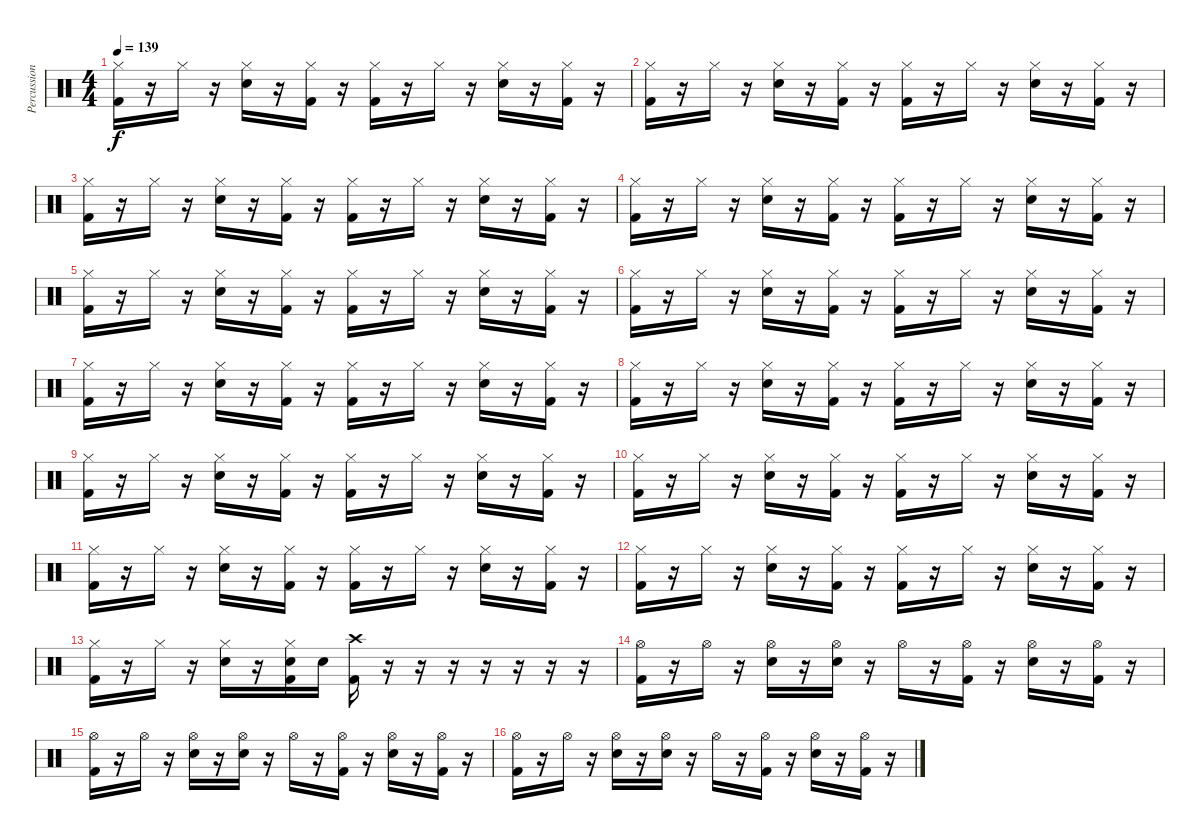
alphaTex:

\track ("Percussion" "Percussion") {instrument percussion}
\staff {score}
\articulation defaults
\ts (4 4)
\tempo 139
\clef neutral
\ks c
("Hi-Hat (closed)" "Kick (hit) 2").16{dy f} r.16 "Hi-Hat (closed)".16 r.16 ("Hi-Hat (closed)" "Snare (hit) 2").16 r.16 ("Hi-Hat (closed)" "Kick (hit) 2").16 r.16 ("Hi-Hat (closed)" "Kick (hit) 2").16 r.16 "Hi-Hat (closed)".16 r.16 ("Hi-Hat (closed)" "Snare (hit) 2").16 r.16 ("Hi-Hat (closed)" "Kick (hit) 2").16 r.16 |
("Hi-Hat (closed)" "Kick (hit) 2").16 r.16 "Hi-Hat (closed)".16 r.16 ("Hi-Hat (closed)" "Snare (hit) 2").16 r.16 ("Hi-Hat (closed)" "Kick (hit) 2").16 r.16 ("Hi-Hat (closed)" "Kick (hit) 2").16 r.16 "Hi-Hat (closed)".16 r.16 ("Hi-Hat (closed)" "Snare (hit) 2").16 r.16 ("Hi-Hat (closed)" "Kick (hit) 2").16 r.16 |
("Hi-Hat (closed)" "Kick (hit) 2").16 r.16 "Hi-Hat (closed)".16 r.16 ("Hi-Hat (closed)" "Snare (hit) 2").16 r.16 ("Hi-Hat (closed)" "Kick (hit) 2").16 r.16 ("Hi-Hat (closed)" "Kick (hit) 2").16 r.16 "Hi-Hat (closed)".16 r.16 ("Hi-Hat (closed)" "Snare (hit) 2").16 r.16 ("Hi-Hat (closed)" "Kick (hit) 2").16 r.16 |
("Hi-Hat (closed)" "Kick (hit) 2").16 r.16 "Hi-Hat (closed)".16 r.16 ("Hi-Hat (closed)" "Snare (hit) 2").16 r.16 ("Hi-Hat (closed)" "Kick (hit) 2").16 r.16 ("Hi-Hat (closed)" "Kick (hit) 2").16 r.16 "Hi-Hat (closed)".16 r.16 ("Hi-Hat (closed)" "Snare (hit) 2").16 r.16 ("Hi-Hat (closed)" "Kick (hit) 2").16 r.16 |
("Hi-Hat (closed)" "Kick (hit) 2").16 r.16 "Hi-Hat (closed)".16 r.16 ("Hi-Hat (closed)" "Snare (hit) 2").16 r.16 ("Hi-Hat (closed)" "Kick (hit) 2").16 r.16 ("Hi-Hat (closed)" "Kick (hit) 2").16 r.16 "Hi-Hat (closed)".16 r.16 ("Hi-Hat (closed)" "Snare (hit) 2").16 r.16 ("Hi-Hat (closed)" "Kick (hit) 2").16 r.16 |
("Hi-Hat (closed)" "Kick (hit) 2").16 r.16 "Hi-Hat (closed)".16 r.16 ("Hi-Hat (closed)" "Snare (hit) 2").16 r.16 ("Hi-Hat (closed)" "Kick (hit) 2").16 r.16 ("Hi-Hat (closed)" "Kick (hit) 2").16 r.16 "Hi-Hat (closed)".16 r.16 ("Hi-Hat (closed)" "Snare (hit) 2").16 r.16 ("Hi-Hat (closed)" "Kick (hit) 2").16 r.16 |
("Hi-Hat (closed)" "Kick (hit) 2").16 r.16 "Hi-Hat (closed)".16 r.16 ("Hi-Hat (closed)" "Snare (hit) 2").16 r.16 ("Hi-Hat (closed)" "Kick (hit) 2").16 r.16 ("Hi-Hat (closed)" "Kick (hit) 2").16 r.16 "Hi-Hat (closed)".16 r.16 ("Hi-Hat (closed)" "Snare (hit) 2").16 r.16 ("Hi-Hat (closed)" "Kick (hit) 2").16 r.16 |
("Hi-Hat (closed)" "Kick (hit) 2").16 r.16 "Hi-Hat (closed)".16 r.16 ("Hi-Hat (closed)" "Snare (hit) 2").16 r.16 ("Hi-Hat (closed)" "Kick (hit) 2").16 r.16 ("Hi-Hat (closed)" "Kick (hit) 2").16 r.16 "Hi-Hat (closed)".16 r.16 ("Hi-Hat (closed)" "Snare (hit) 2").16 r.16 ("Hi-Hat (closed)" "Kick (hit) 2").16 r.16 |
("Hi-Hat (closed)" "Kick (hit) 2").16 r.16 "Hi-Hat (closed)".16 r.16 ("Hi-Hat (closed)" "Snare (hit) 2").16 r.16 ("Hi-Hat (closed)" "Kick (hit) 2").16 r.16 ("Hi-Hat (closed)" "Kick (hit) 2").16 r.16 "Hi-Hat (closed)".16 r.16 ("Hi-Hat (closed)" "Snare (hit) 2").16 r.16 ("Hi-Hat (closed)" "Kick (hit) 2").16 r.16 |
("Hi-Hat (closed)" "Kick (hit) 2").16 r.16 "Hi-Hat (closed)".16 r.16 ("Hi-Hat (closed)" "Snare (hit) 2").16 r.16 ("Hi-Hat (closed)" "Kick (hit) 2").16 r.16 ("Hi-Hat (closed)" "Kick (hit) 2").16 r.16 "Hi-Hat (closed)".16 r.16 ("Hi-Hat (closed)" "Snare (hit) 2").16 r.16 ("Hi-Hat (closed)" "Kick (hit) 2").16 r.16 |
("Hi-Hat (closed)" "Kick (hit) 2").16 r.16 "Hi-Hat (closed)".16 r.16 ("Hi-Hat (closed)" "Snare (hit) 2").16 r.16 ("Hi-Hat (closed)" "Kick (hit) 2").16 r.16 ("Hi-Hat (closed)" "Kick (hit) 2").16 r.16 "Hi-Hat (closed)".16 r.16 ("Hi-Hat (closed)" "Snare (hit) 2").16 r.16 ("Hi-Hat (closed)" "Kick (hit) 2").16 r.16 |
("Hi-Hat (closed)" "Kick (hit) 2").16 r.16 "Hi-Hat (closed)".16 r.16 ("Hi-Hat (closed)" "Snare (hit) 2").16 r.16 ("Hi-Hat (closed)" "Kick (hit) 2").16 r.16 ("Hi-Hat (closed)" "Kick (hit) 2").16 r.16 "Hi-Hat (closed)".16 r.16 ("Hi-Hat (closed)" "Snare (hit) 2").16 r.16 ("Hi-Hat (closed)" "Kick (hit) 2").16 r.16 |
("Hi-Hat (closed)" "Kick (hit) 2").16 r.16 "Hi-Hat (closed)".16 r.16 ("Hi-Hat (closed)" "Snare (hit) 2").16 r.16 ("Hi-Hat (closed)" "Snare (hit) 2" "Kick (hit) 2").16 "Snare (hit) 2".16 ("Crash high (hit)" "Kick (hit) 2").16 r.16 r.16 r.16 r.16 r.16 r.16 r.16 |
("Hi-Hat (open)" "Kick (hit) 2").16 r.16 "Hi-Hat (open)".16 r.16 ("Hi-Hat (open)" "Snare (hit) 2").16 r.16 ("Hi-Hat (open)" "Snare (hit) 2").16 r.16 "Hi-Hat (open)".16 r.16 ("Hi-Hat (open)" "Kick (hit) 2").16 r.16 ("Hi-Hat (open)" "Snare (hit) 2").16 r.16 ("Hi-Hat (open)" "Kick (hit) 2").16 r.16 |
("Hi-Hat (open)" "Kick (hit) 2").16 r.16 "Hi-Hat (open)".16 r.16 ("Hi-Hat (open)" "Snare (hit) 2").16 r.16 ("Hi-Hat (open)" "Snare (hit) 2").16 r.16 "Hi-Hat (open)".16 r.16 ("Hi-Hat (open)" "Kick (hit) 2").16 r.16 ("Hi-Hat (open)" "Snare (hit) 2").16 r.16 ("Hi-Hat (open)" "Kick (hit) 2").16 r.16 |
("Hi-Hat (open)" "Kick (hit) 2").16 r.16 "Hi-Hat (open)".16 r.16 ("Hi-Hat (open)" "Snare (hit) 2").16 r.16 ("Hi-Hat (open)" "Snare (hit) 2").16 r.16 "Hi-Hat (open)".16 r.16 ("Hi-Hat (open)" "Kick (hit) 2").16 r.16 ("Hi-Hat (open)" "Snare (hit) 2").16 r.16 ("Hi-Hat (open)" "Kick (hit) 2").16 r.16
